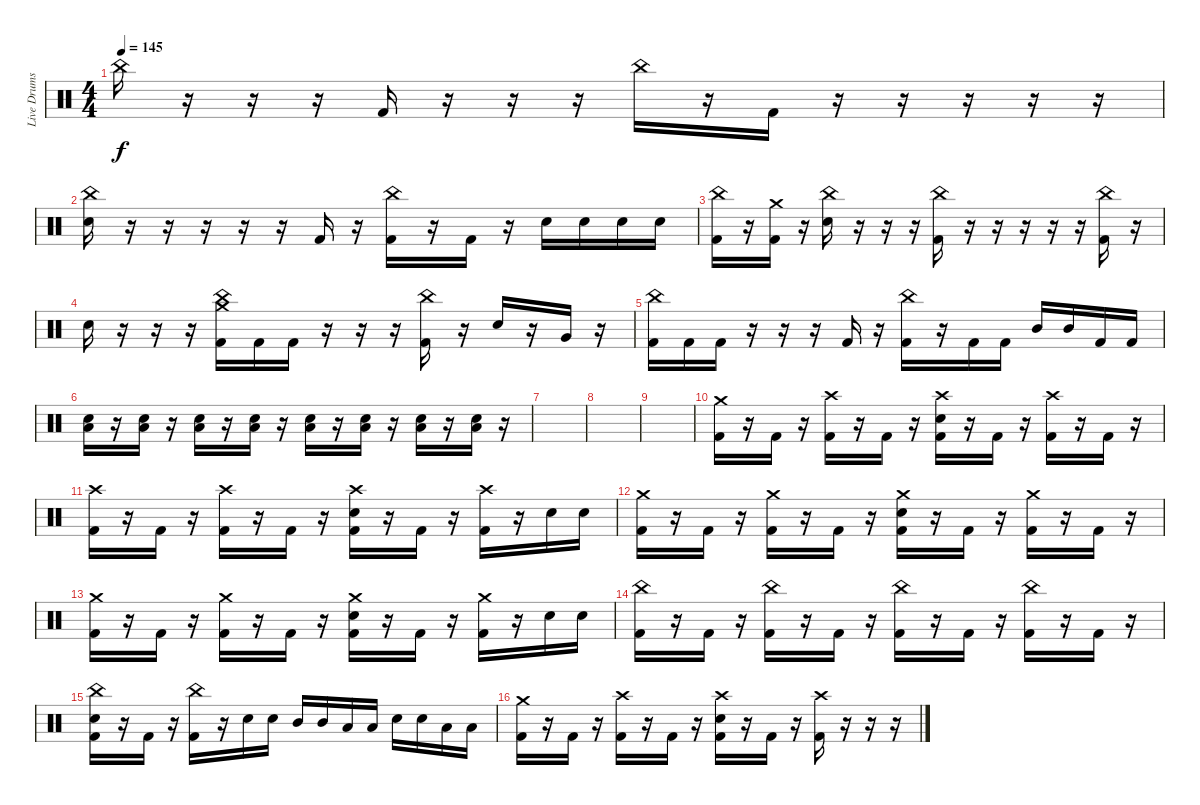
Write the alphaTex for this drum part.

\track ("Live Drums" "Live Drums") {instrument percussion}
\staff {score}
\articulation defaults
\ts (4 4)
\tempo 145
\clef neutral
\ks c "China (hit)".16{dy f}
r.16 r.16 r.16 "Kick (hit) 2".16 r.16 r.16 r.16 "China (hit)".16 r.16 "Kick (hit) 2".16 r.16 r.16 r.16 r.16 r.16 |
("China (hit)" "Snare (hit) 2").16 r.16 r.16 r.16 r.16 r.16 "Kick (hit) 2".16 r.16 ("China (hit)" "Kick (hit) 2").16 r.16 "Kick (hit) 2".16 r.16 "Snare (hit) 2".16 "Snare (hit) 2".16 "Snare (hit) 2".16 "Snare (hit) 2".16 |
("China (hit)" "Kick (hit) 2").16 r.16 ("Crash medium (hit)" "Kick (hit) 2").16 r.16 ("China (hit)" "Snare (hit) 2").16 r.16 r.16 r.16 ("China (hit)" "Kick (hit) 2").16 r.16 r.16 r.16 r.16 r.16 ("China (hit)" "Kick (hit) 2").16 r.16 |
"Snare (hit) 2".16 r.16 r.16 r.16 ("China (hit)" "Crash medium (hit)" "Kick (hit) 2").16 "Kick (hit) 2".16 "Kick (hit) 2".16 r.16 r.16 r.16 ("China (hit)" "Kick (hit) 2").16 r.16 "Snare (hit) 2".16 r.16 "Very Low Tom (hit)".16 r.16 |
("China (hit)" "Kick (hit) 2").16 "Kick (hit) 2".16 "Kick (hit) 2".16 r.16 r.16 r.16 "Kick (hit) 2".16 r.16 ("China (hit)" "Kick (hit) 2").16 r.16 "Kick (hit) 2".16 "Kick (hit) 2".16 "Mid Tom (hit)".16 "Mid Tom (hit)".16 "Kick (hit) 2".16 "Kick (hit) 2".16 |
("Low Tom (hit)" "Snare (hit) 2").16 r.16 ("Low Tom (hit)" "Snare (hit) 2").16 r.16 ("Low Tom (hit)" "Snare (hit) 2").16 r.16 ("Low Tom (hit)" "Snare (hit) 2").16 r.16 ("Low Tom (hit)" "Snare (hit) 2").16 r.16 ("Low Tom (hit)" "Snare (hit) 2").16 r.16 ("Low Tom (hit)" "Snare (hit) 2").16 r.16 ("Low Tom (hit)" "Snare (hit) 2").16 r.16 |
|
|
|
("Crash medium (hit)" "Kick (hit) 2").16 r.16 "Kick (hit) 2".16 r.16 ("Crash high (hit)" "Kick (hit) 2").16 r.16 "Kick (hit) 2".16 r.16 ("Crash high (hit)" "Snare (hit) 2" "Kick (hit) 2").16 r.16 "Kick (hit) 2".16 r.16 ("Crash high (hit)" "Kick (hit) 2").16 r.16 "Kick (hit) 2".16 r.16 |
("Crash high (hit)" "Kick (hit) 2").16 r.16 "Kick (hit) 2".16 r.16 ("Crash high (hit)" "Kick (hit) 2").16 r.16 "Kick (hit) 2".16 r.16 ("Crash high (hit)" "Snare (hit) 2" "Kick (hit) 2").16 r.16 "Kick (hit) 2".16 r.16 ("Crash high (hit)" "Kick (hit) 2").16 r.16 "Snare (hit) 2".16 "Snare (hit) 2".16 |
("Crash medium (hit)" "Kick (hit) 2").16 r.16 "Kick (hit) 2".16 r.16 ("Crash medium (hit)" "Kick (hit) 2").16 r.16 "Kick (hit) 2".16 r.16 ("Crash medium (hit)" "Snare (hit) 2" "Kick (hit) 2").16 r.16 "Kick (hit) 2".16 r.16 ("Crash medium (hit)" "Kick (hit) 2").16 r.16 "Kick (hit) 2".16 r.16 |
("Crash medium (hit)" "Kick (hit) 2").16 r.16 "Kick (hit) 2".16 r.16 ("Crash medium (hit)" "Kick (hit) 2").16 r.16 "Kick (hit) 2".16 r.16 ("Crash medium (hit)" "Snare (hit) 2" "Kick (hit) 2").16 r.16 "Kick (hit) 2".16 r.16 ("Crash medium (hit)" "Kick (hit) 2").16 r.16 "Snare (hit) 2".16 "Snare (hit) 2".16 |
("China (hit)" "Kick (hit) 2").16 r.16 "Kick (hit) 2".16 r.16 ("China (hit)" "Kick (hit) 2").16 r.16 "Kick (hit) 2".16 r.16 ("China (hit)" "Kick (hit) 2").16 r.16 "Kick (hit) 2".16 r.16 ("China (hit)" "Kick (hit) 2").16 r.16 "Kick (hit) 2".16 r.16 |
("China (hit)" "Snare (hit) 2" "Kick (hit) 2").16 r.16 "Kick (hit) 2".16 r.16 ("China (hit)" "Kick (hit) 2").16 r.16 "Snare (hit) 2".16 "Snare (hit) 2".16 "Mid Tom (hit)".16 "Mid Tom (hit)".16 "Low Tom (hit)".16 "Low Tom (hit)".16 "Snare (hit) 2".16 "Snare (hit) 2".16 "Low Tom (hit)".16 "Low Tom (hit)".16 |
("Crash medium (hit)" "Kick (hit) 2").16 r.16 "Kick (hit) 2".16 r.16 ("Crash high (hit)" "Kick (hit) 2").16 r.16 "Kick (hit) 2".16 r.16 ("Crash high (hit)" "Snare (hit) 2" "Kick (hit) 2").16 r.16 "Kick (hit) 2".16 r.16 ("Crash high (hit)" "Kick (hit) 2").16 r.16 r.16 r.16
